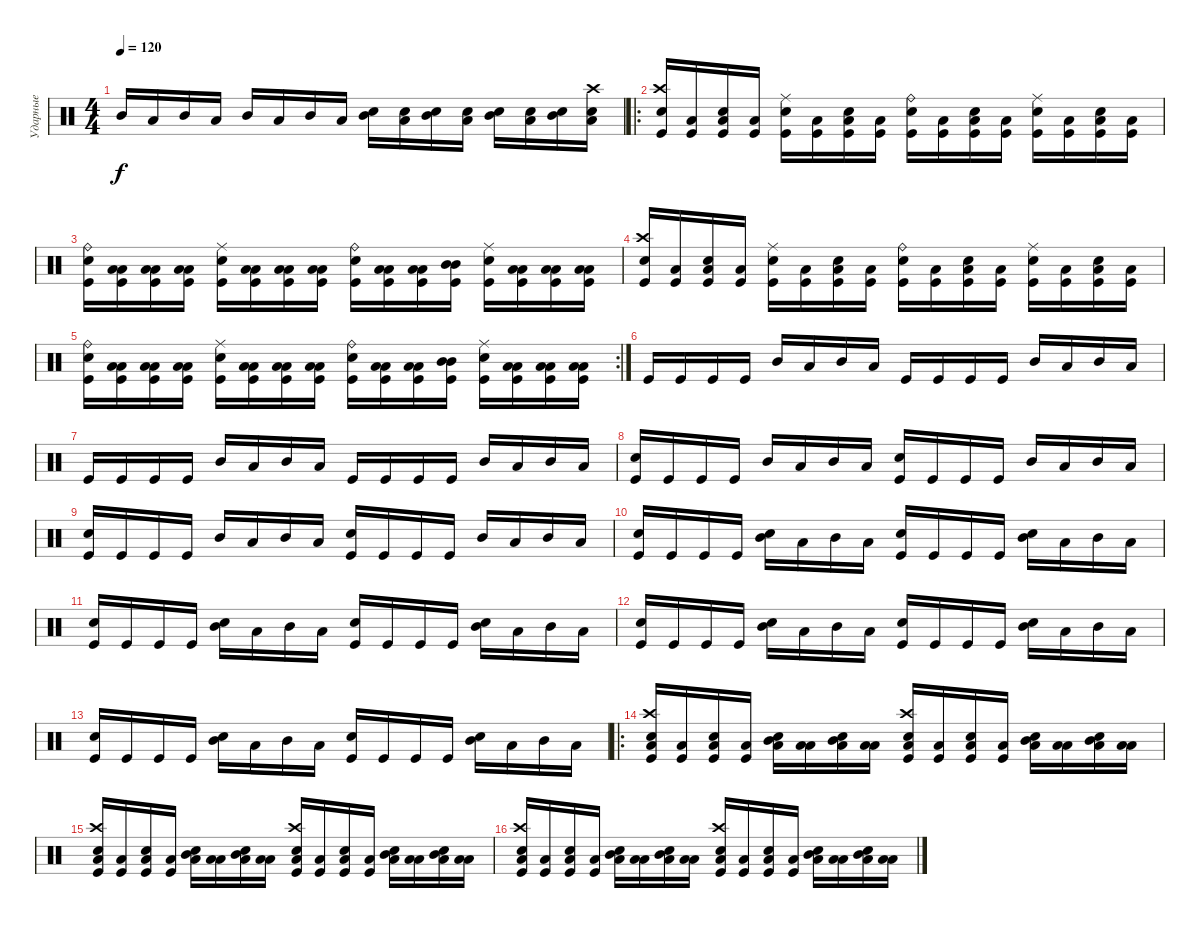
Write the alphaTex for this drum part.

\track ("Ударные" "Ударные") {instrument percussion}
\staff {score}
\articulation defaults
\ts (4 4)
\tempo 120
\clef neutral
\ks c "Mid Tom (hit)".16{dy f} "Low Tom (hit)".16 "Mid Tom (hit)".16 "Low Tom (hit)".16 "Mid Tom (hit)".16 "Low Tom (hit)".16 "Mid Tom (hit)".16 "Low Tom (hit)".16
("Snare (hit) 2" "Mid Tom (hit)").16 ("Snare (hit) 2" "Low Tom (hit)").16 ("Snare (hit) 2" "Mid Tom (hit)").16 ("Snare (hit) 2" "Low Tom (hit)").16 ("Electric Snare (hit)" "Mid Tom (hit)").16 ("Electric Snare (hit)" "Low Tom (hit)").16 ("Electric Snare (hit)" "Mid Tom (hit)").16 ("Crash high (hit)" "Electric Snare (hit)" "Low Tom (hit)").16 |
\ro
("Crash high (hit)" "Snare (hit) 2" "Kick (hit)").16 ("Low Tom (hit)" "Kick (hit)").16 ("Low Tom (hit)" "Snare (hit) 2" "Kick (hit)").16 ("Low Tom (hit)" "Kick (hit)").16 ("Ride (middle)" "Snare (hit) 2" "Kick (hit)").16 ("Low Tom (hit)" "Kick (hit)").16 ("Low Tom (hit)" "Snare (hit) 2" "Kick (hit)").16 ("Low Tom (hit)" "Kick (hit)").16 ("Ride (bell)" "Snare (hit) 2" "Kick (hit)").16 ("Low Tom (hit)" "Kick (hit)").16 ("Low Tom (hit)" "Snare (hit) 2" "Kick (hit)").16 ("Low Tom (hit)" "Kick (hit)").16 ("Ride (middle)" "Snare (hit) 2" "Kick (hit)").16 ("Low Tom (hit)" "Kick (hit)").16 ("Low Tom (hit)" "Snare (hit) 2" "Kick (hit)").16 ("Low Tom (hit)" "Kick (hit)").16 |
("Ride (bell)" "Snare (hit) 2" "Kick (hit)").16 ("Low Tom (hit)" "Low Tom (hit)" "Kick (hit)").16 ("Low Tom (hit)" "Low Tom (hit)" "Kick (hit)").16 ("Low Tom (hit)" "Low Tom (hit)" "Kick (hit)").16 ("Ride (middle)" "Snare (hit) 2" "Kick (hit)").16 ("Low Tom (hit)" "Low Tom (hit)" "Kick (hit)").16 ("Low Tom (hit)" "Low Tom (hit)" "Kick (hit)").16 ("Low Tom (hit)" "Low Tom (hit)" "Kick (hit)").16 ("Ride (bell)" "Snare (hit) 2" "Kick (hit)").16 ("Low Tom (hit)" "Low Tom (hit)" "Kick (hit)").16 ("Low Tom (hit)" "Low Tom (hit)" "Kick (hit)").16 ("Mid Tom (hit)" "Mid Tom (hit)" "Kick (hit)").16 ("Ride (middle)" "Snare (hit) 2" "Kick (hit)").16 ("Low Tom (hit)" "Low Tom (hit)" "Kick (hit)").16 ("Low Tom (hit)" "Low Tom (hit)" "Kick (hit)").16 ("Low Tom (hit)" "Low Tom (hit)" "Kick (hit)").16 |
("Crash high (hit)" "Snare (hit) 2" "Kick (hit)").16 ("Low Tom (hit)" "Kick (hit)").16 ("Low Tom (hit)" "Snare (hit) 2" "Kick (hit)").16 ("Low Tom (hit)" "Kick (hit)").16 ("Ride (middle)" "Snare (hit) 2" "Kick (hit)").16 ("Low Tom (hit)" "Kick (hit)").16 ("Low Tom (hit)" "Snare (hit) 2" "Kick (hit)").16 ("Low Tom (hit)" "Kick (hit)").16 ("Ride (bell)" "Snare (hit) 2" "Kick (hit)").16 ("Low Tom (hit)" "Kick (hit)").16 ("Low Tom (hit)" "Snare (hit) 2" "Kick (hit)").16 ("Low Tom (hit)" "Kick (hit)").16 ("Ride (middle)" "Snare (hit) 2" "Kick (hit)").16 ("Low Tom (hit)" "Kick (hit)").16 ("Low Tom (hit)" "Snare (hit) 2" "Kick (hit)").16 ("Low Tom (hit)" "Kick (hit)").16 |
\rc 2
("Ride (bell)" "Snare (hit) 2" "Kick (hit)").16 ("Low Tom (hit)" "Low Tom (hit)" "Kick (hit)").16 ("Low Tom (hit)" "Low Tom (hit)" "Kick (hit)").16 ("Low Tom (hit)" "Low Tom (hit)" "Kick (hit)").16 ("Ride (middle)" "Snare (hit) 2" "Kick (hit)").16 ("Low Tom (hit)" "Low Tom (hit)" "Kick (hit)").16 ("Low Tom (hit)" "Low Tom (hit)" "Kick (hit)").16 ("Low Tom (hit)" "Low Tom (hit)" "Kick (hit)").16 ("Ride (bell)" "Snare (hit) 2" "Kick (hit)").16 ("Low Tom (hit)" "Low Tom (hit)" "Kick (hit)").16 ("Low Tom (hit)" "Low Tom (hit)" "Kick (hit)").16 ("Mid Tom (hit)" "Mid Tom (hit)" "Kick (hit)").16 ("Ride (middle)" "Snare (hit) 2" "Kick (hit)").16 ("Low Tom (hit)" "Low Tom (hit)" "Kick (hit)").16 ("Low Tom (hit)" "Low Tom (hit)" "Kick (hit)").16 ("Low Tom (hit)" "Low Tom (hit)" "Kick (hit)").16 |
"Kick (hit)".16 "Kick (hit)".16 "Kick (hit)".16 "Kick (hit)".16 "Mid Tom (hit)".16 "Low Tom (hit)".16 "Mid Tom (hit)".16 "Low Tom (hit)".16 "Kick (hit)".16 "Kick (hit)".16 "Kick (hit)".16 "Kick (hit)".16 "Mid Tom (hit)".16 "Low Tom (hit)".16 "Mid Tom (hit)".16 "Low Tom (hit)".16 |
"Kick (hit)".16 "Kick (hit)".16 "Kick (hit)".16 "Kick (hit)".16 "Mid Tom (hit)".16 "Low Tom (hit)".16 "Mid Tom (hit)".16 "Low Tom (hit)".16 "Kick (hit)".16 "Kick (hit)".16 "Kick (hit)".16 "Kick (hit)".16 "Mid Tom (hit)".16 "Low Tom (hit)".16 "Mid Tom (hit)".16 "Low Tom (hit)".16 |
("Snare (hit) 2" "Kick (hit)").16 "Kick (hit)".16 "Kick (hit)".16 "Kick (hit)".16 "Mid Tom (hit)".16 "Low Tom (hit)".16 "Mid Tom (hit)".16 "Low Tom (hit)".16 ("Snare (hit) 2" "Kick (hit)").16 "Kick (hit)".16 "Kick (hit)".16 "Kick (hit)".16 "Mid Tom (hit)".16 "Low Tom (hit)".16 "Mid Tom (hit)".16 "Low Tom (hit)".16 |
("Snare (hit) 2" "Kick (hit)").16 "Kick (hit)".16 "Kick (hit)".16 "Kick (hit)".16 "Mid Tom (hit)".16 "Low Tom (hit)".16 "Mid Tom (hit)".16 "Low Tom (hit)".16 ("Snare (hit) 2" "Kick (hit)").16 "Kick (hit)".16 "Kick (hit)".16 "Kick (hit)".16 "Mid Tom (hit)".16 "Low Tom (hit)".16 "Mid Tom (hit)".16 "Low Tom (hit)".16 |
("Snare (hit) 2" "Kick (hit)").16 "Kick (hit)".16 "Kick (hit)".16 "Kick (hit)".16 ("Snare (hit) 2" "Mid Tom (hit)").16 "Low Tom (hit)".16 "Mid Tom (hit)".16 "Low Tom (hit)".16 ("Snare (hit) 2" "Kick (hit)").16 "Kick (hit)".16 "Kick (hit)".16 "Kick (hit)".16 ("Snare (hit) 2" "Mid Tom (hit)").16 "Low Tom (hit)".16 "Mid Tom (hit)".16 "Low Tom (hit)".16 |
("Snare (hit) 2" "Kick (hit)").16 "Kick (hit)".16 "Kick (hit)".16 "Kick (hit)".16 ("Snare (hit) 2" "Mid Tom (hit)").16 "Low Tom (hit)".16 "Mid Tom (hit)".16 "Low Tom (hit)".16 ("Snare (hit) 2" "Kick (hit)").16 "Kick (hit)".16 "Kick (hit)".16 "Kick (hit)".16 ("Snare (hit) 2" "Mid Tom (hit)").16 "Low Tom (hit)".16 "Mid Tom (hit)".16 "Low Tom (hit)".16 |
("Electric Snare (hit)" "Kick (hit)").16 "Kick (hit)".16 "Kick (hit)".16 "Kick (hit)".16 ("Electric Snare (hit)" "Mid Tom (hit)").16 "Low Tom (hit)".16 "Mid Tom (hit)".16 "Low Tom (hit)".16 ("Electric Snare (hit)" "Kick (hit)").16 "Kick (hit)".16 "Kick (hit)".16 "Kick (hit)".16 ("Electric Snare (hit)" "Mid Tom (hit)").16 "Low Tom (hit)".16 "Mid Tom (hit)".16 "Low Tom (hit)".16 |
("Electric Snare (hit)" "Kick (hit)").16 "Kick (hit)".16 "Kick (hit)".16 "Kick (hit)".16 ("Electric Snare (hit)" "Mid Tom (hit)").16 "Low Tom (hit)".16 "Mid Tom (hit)".16 "Low Tom (hit)".16 ("Electric Snare (hit)" "Kick (hit)").16 "Kick (hit)".16 "Kick (hit)".16 "Kick (hit)".16 ("Electric Snare (hit)" "Mid Tom (hit)").16 "Low Tom (hit)".16 "Mid Tom (hit)".16 "Low Tom (hit)".16 |
\ro
("Crash high (hit)" "Low Tom (hit)" "Snare (hit) 2" "Kick (hit)").16 ("Low Tom (hit)" "Kick (hit)").16 ("Low Tom (hit)" "Snare (hit) 2" "Kick (hit)").16 ("Low Tom (hit)" "Kick (hit)").16 ("Low Tom (hit)" "Snare (hit) 2" "Mid Tom (hit)").16 ("Low Tom (hit)" "Low Tom (hit)").16 ("Low Tom (hit)" "Snare (hit) 2" "Mid Tom (hit)").16 ("Low Tom (hit)" "Low Tom (hit)").16 ("Crash high (hit)" "Low Tom (hit)" "Snare (hit) 2" "Kick (hit)").16 ("Low Tom (hit)" "Kick (hit)").16 ("Low Tom (hit)" "Snare (hit) 2" "Kick (hit)").16 ("Low Tom (hit)" "Kick (hit)").16 ("Low Tom (hit)" "Snare (hit) 2" "Mid Tom (hit)").16 ("Low Tom (hit)" "Low Tom (hit)").16 ("Low Tom (hit)" "Snare (hit) 2" "Mid Tom (hit)").16 ("Low Tom (hit)" "Low Tom (hit)").16 |
("Crash high (hit)" "Low Tom (hit)" "Snare (hit) 2" "Kick (hit)").16 ("Low Tom (hit)" "Kick (hit)").16 ("Low Tom (hit)" "Snare (hit) 2" "Kick (hit)").16 ("Low Tom (hit)" "Kick (hit)").16 ("Low Tom (hit)" "Snare (hit) 2" "Mid Tom (hit)").16 ("Low Tom (hit)" "Low Tom (hit)").16 ("Low Tom (hit)" "Snare (hit) 2" "Mid Tom (hit)").16 ("Low Tom (hit)" "Low Tom (hit)").16 ("Crash high (hit)" "Low Tom (hit)" "Snare (hit) 2" "Kick (hit)").16 ("Low Tom (hit)" "Kick (hit)").16 ("Low Tom (hit)" "Snare (hit) 2" "Kick (hit)").16 ("Low Tom (hit)" "Kick (hit)").16 ("Low Tom (hit)" "Snare (hit) 2" "Mid Tom (hit)").16 ("Low Tom (hit)" "Low Tom (hit)").16 ("Low Tom (hit)" "Snare (hit) 2" "Mid Tom (hit)").16 ("Low Tom (hit)" "Low Tom (hit)").16 |
("Crash high (hit)" "Low Tom (hit)" "Snare (hit) 2" "Kick (hit)").16 ("Low Tom (hit)" "Kick (hit)").16 ("Low Tom (hit)" "Snare (hit) 2" "Kick (hit)").16 ("Low Tom (hit)" "Kick (hit)").16 ("Low Tom (hit)" "Snare (hit) 2" "Mid Tom (hit)").16 ("Low Tom (hit)" "Low Tom (hit)").16 ("Low Tom (hit)" "Snare (hit) 2" "Mid Tom (hit)").16 ("Low Tom (hit)" "Low Tom (hit)").16 ("Crash high (hit)" "Low Tom (hit)" "Snare (hit) 2" "Kick (hit)").16 ("Low Tom (hit)" "Kick (hit)").16 ("Low Tom (hit)" "Snare (hit) 2" "Kick (hit)").16 ("Low Tom (hit)" "Kick (hit)").16 ("Low Tom (hit)" "Snare (hit) 2" "Mid Tom (hit)").16 ("Low Tom (hit)" "Low Tom (hit)").16 ("Low Tom (hit)" "Snare (hit) 2" "Mid Tom (hit)").16 ("Low Tom (hit)" "Low Tom (hit)").16
